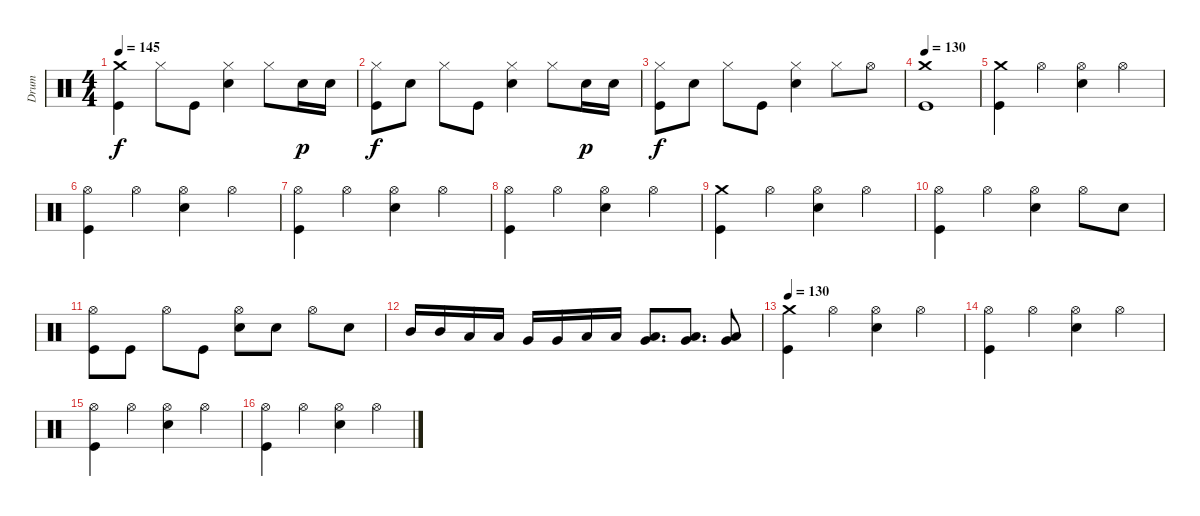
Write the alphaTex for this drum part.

\track ("Drum" "Drum") {instrument percussion}
\staff {score}
\articulation defaults
\ts (4 4)
\tempo 145
\clef neutral
\ks c
("Kick (hit)" "Crash medium (hit)").4{dy f} "Hi-Hat (closed)".8 "Kick (hit)".8 ("Electric Snare (hit)" "Hi-Hat (closed)").4 "Hi-Hat (closed)".8 "Electric Snare (hit)".16{dy p} "Electric Snare (hit)".16 |
("Kick (hit)" "Hi-Hat (closed)").8{dy f} "Electric Snare (hit)".8 "Hi-Hat (closed)".8 "Kick (hit)".8 ("Electric Snare (hit)" "Hi-Hat (closed)").4 "Hi-Hat (closed)".8 "Electric Snare (hit)".16{dy p} "Electric Snare (hit)".16 |
("Kick (hit)" "Hi-Hat (closed)").8{dy f} "Electric Snare (hit)".8 "Hi-Hat (closed)".8 "Kick (hit)".8 ("Electric Snare (hit)" "Hi-Hat (closed)").4 "Hi-Hat (closed)".8 "Hi-Hat (open)".8 |
\tempo 130
("Kick (hit)" "Crash medium (hit)").1 |
("Kick (hit)" "Crash medium (hit)").4 "Hi-Hat (open)".4 ("Electric Snare (hit)" "Hi-Hat (open)").4 "Hi-Hat (open)".4 |
("Kick (hit)" "Hi-Hat (open)").4 "Hi-Hat (open)".4 ("Electric Snare (hit)" "Hi-Hat (open)").4 "Hi-Hat (open)".4 |
("Kick (hit)" "Hi-Hat (open)").4 "Hi-Hat (open)".4 ("Electric Snare (hit)" "Hi-Hat (open)").4 "Hi-Hat (open)".4 |
("Kick (hit)" "Hi-Hat (open)").4 "Hi-Hat (open)".4 ("Electric Snare (hit)" "Hi-Hat (open)").4 "Hi-Hat (open)".4 |
("Kick (hit)" "Crash medium (hit)").4 "Hi-Hat (open)".4 ("Electric Snare (hit)" "Hi-Hat (open)").4 "Hi-Hat (open)".4 |
("Kick (hit)" "Hi-Hat (open)").4 "Hi-Hat (open)".4 ("Electric Snare (hit)" "Hi-Hat (open)").4 "Hi-Hat (open)".8 "Electric Snare (hit)".8 |
("Kick (hit)" "Hi-Hat (open)").8 "Kick (hit)".8 "Hi-Hat (open)".8 "Kick (hit)".8 ("Electric Snare (hit)" "Hi-Hat (open)").8 "Electric Snare (hit)".8 "Hi-Hat (open)".8 "Electric Snare (hit)".8 |
"Mid Tom (hit)".16 "Mid Tom (hit)".16 "Low Tom (hit)".16 "Low Tom (hit)".16 "Very Low Tom (hit)".16 "Very Low Tom (hit)".16 "Low Floor Tom (hit)".16 "Low Floor Tom (hit)".16 ("Low Floor Tom (hit)" "Very Low Tom (hit)").8{d} ("Low Floor Tom (hit)" "Very Low Tom (hit)").8{d} ("Low Floor Tom (hit)" "Very Low Tom (hit)").8 |
\tempo 130
("Kick (hit)" "Crash medium (hit)").4 "Hi-Hat (open)".4 ("Electric Snare (hit)" "Hi-Hat (open)").4 "Hi-Hat (open)".4 |
("Kick (hit)" "Hi-Hat (open)").4 "Hi-Hat (open)".4 ("Electric Snare (hit)" "Hi-Hat (open)").4 "Hi-Hat (open)".4 |
("Kick (hit)" "Hi-Hat (open)").4 "Hi-Hat (open)".4 ("Electric Snare (hit)" "Hi-Hat (open)").4 "Hi-Hat (open)".4 |
("Kick (hit)" "Hi-Hat (open)").4 "Hi-Hat (open)".4 ("Electric Snare (hit)" "Hi-Hat (open)").4 "Hi-Hat (open)".4
